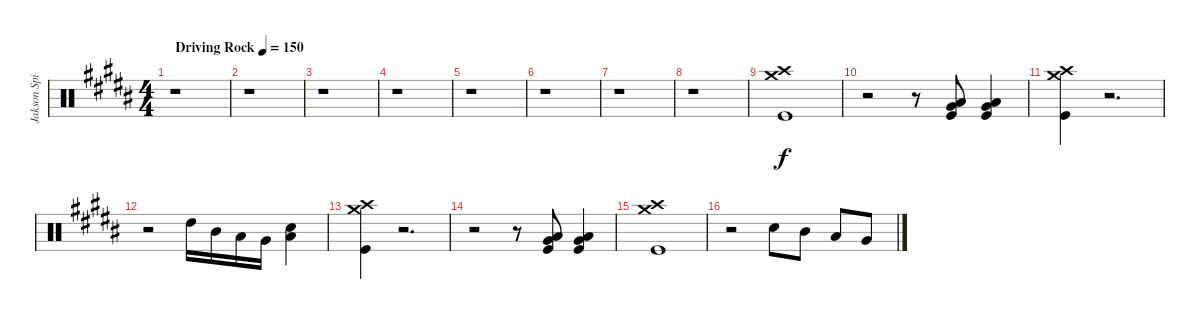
\track ("Jakson Spires Drums" "Jakson Spi") {instrument percussion}
\staff {score}
\articulation defaults
\ts (4 4)
\tempo (150 "Driving Rock")
\clef neutral
\ks b
r.1{dy f} |
r.1 |
r.1 |
r.1 |
r.1 |
r.1 |
r.1 |
r.1 |
("Crash high (hit)" "Crash medium (hit)" "Kick (hit)").1 |
r.2 r.8 ("Very Low Tom (hit)" "Low Floor Tom (hit)" "Kick (hit)").8 ("Very Low Tom (hit)" "Low Floor Tom (hit)" "Kick (hit)").4 |
("Crash high (hit)" "Crash medium (hit)" "Kick (hit)").4 r.2{d} |
r.2 "High Tom (hit)".16 "Mid Tom (hit)".16 "Low Tom (hit)".16 "Very Low Tom (hit)".16 ("Snare (hit) 2" "Low Tom (hit)").4 |
("Crash high (hit)" "Crash medium (hit)" "Kick (hit)").4 r.2{d} |
r.2 r.8 ("Very Low Tom (hit)" "Low Floor Tom (hit)" "Kick (hit)").8 ("Very Low Tom (hit)" "Low Floor Tom (hit)" "Kick (hit)").4 |
("Crash high (hit)" "Crash medium (hit)" "Kick (hit)").1 |
r.2 "Snare (hit) 2".8 "Mid Tom (hit)".8 "Low Tom (hit)".8 "Very Low Tom (hit)".8
